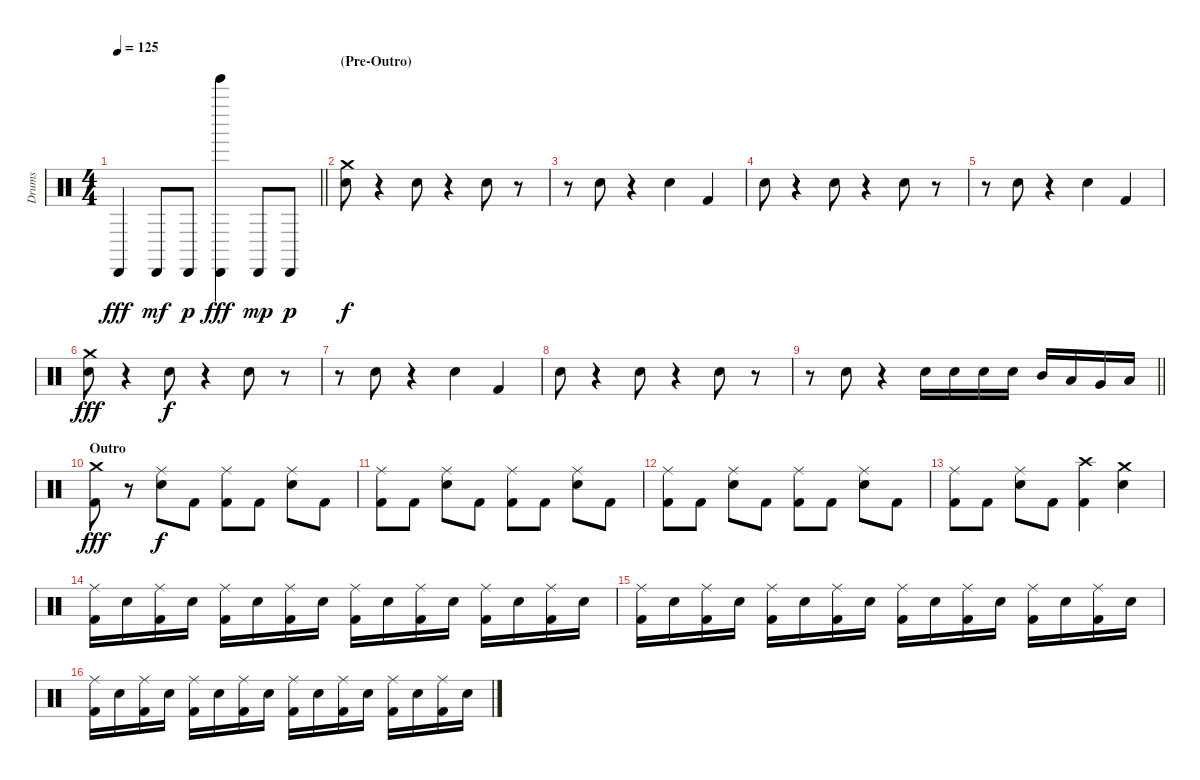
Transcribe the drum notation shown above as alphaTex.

\track ("Drums" "Drums") {instrument percussion}
\staff {score}
\articulation defaults
\ts (4 4)
\tempo 125
\clef neutral
\barLineRight lightlight
\ks c "Cabasa (hit)".4{dy fff} "Cabasa (hit)".8{dy mf} "Cabasa (hit)".8{dy p}
("Tinkle Bell (hit)" "Cabasa (hit)").4{dy fff} "Cabasa (hit)".8{dy mp} "Cabasa (hit)".8{dy p} |
\section ("" "(Pre-Outro)")
("Crash medium (hit)" "Electric Snare (hit)").8{dy f} r.4 "Electric Snare (hit)".8 r.4 "Electric Snare (hit)".8 r.8 |
r.8 "Electric Snare (hit)".8 r.4 "Electric Snare (hit)".4 "Kick (hit) 2".4 |
"Electric Snare (hit)".8 r.4 "Electric Snare (hit)".8 r.4 "Electric Snare (hit)".8 r.8 |
r.8 "Electric Snare (hit)".8 r.4 "Electric Snare (hit)".4 "Kick (hit) 2".4 |
("Crash medium (hit)" "Electric Snare (hit)").8{dy fff} r.4 "Electric Snare (hit)".8{dy f} r.4 "Electric Snare (hit)".8 r.8 |
r.8 "Electric Snare (hit)".8 r.4 "Electric Snare (hit)".4 "Kick (hit) 2".4 |
"Electric Snare (hit)".8 r.4 "Electric Snare (hit)".8 r.4 "Electric Snare (hit)".8 r.8 |
\barLineRight lightlight
r.8 "Electric Snare (hit)".8 r.4 "Electric Snare (hit)".16 "Electric Snare (hit)".16 "Electric Snare (hit)".16 "Electric Snare (hit)".16 "Mid Tom (hit)".16 "Low Tom (hit)".16 "Very Low Tom (hit)".16 "Low Floor Tom (hit)".16 |
\section ("" "Outro")
("Crash medium (hit)" "Kick (hit) 2").8{dy fff} r.8 ("Ride (middle)" "Electric Snare (hit)").8{dy f} "Kick (hit) 2".8 ("Ride (middle)" "Kick (hit) 2").8 "Kick (hit) 2".8 ("Ride (middle)" "Electric Snare (hit)").8 "Kick (hit) 2".8 |
("Ride (middle)" "Kick (hit) 2").8 "Kick (hit) 2".8 ("Ride (middle)" "Electric Snare (hit)").8 "Kick (hit) 2".8 ("Ride (middle)" "Kick (hit) 2").8 "Kick (hit) 2".8 ("Ride (middle)" "Electric Snare (hit)").8 "Kick (hit) 2".8 |
("Ride (middle)" "Kick (hit) 2").8 "Kick (hit) 2".8 ("Ride (middle)" "Electric Snare (hit)").8 "Kick (hit) 2".8 ("Ride (middle)" "Kick (hit) 2").8 "Kick (hit) 2".8 ("Ride (middle)" "Electric Snare (hit)").8 "Kick (hit) 2".8 |
("Ride (middle)" "Kick (hit) 2").8 "Kick (hit) 2".8 ("Ride (middle)" "Electric Snare (hit)").8 "Kick (hit) 2".8 ("Crash high (hit)" "Kick (hit) 2").4 ("Crash medium (hit)" "Electric Snare (hit)").4 |
("Ride (middle)" "Kick (hit) 2").16 "Electric Snare (hit)".16 ("Ride (middle)" "Kick (hit) 2").16 "Electric Snare (hit)".16 ("Ride (middle)" "Kick (hit) 2").16 "Electric Snare (hit)".16 ("Ride (middle)" "Kick (hit) 2").16 "Electric Snare (hit)".16 ("Ride (middle)" "Kick (hit) 2").16 "Electric Snare (hit)".16 ("Ride (middle)" "Kick (hit) 2").16 "Electric Snare (hit)".16 ("Ride (middle)" "Kick (hit) 2").16 "Electric Snare (hit)".16 ("Ride (middle)" "Kick (hit) 2").16 "Electric Snare (hit)".16 |
("Ride (middle)" "Kick (hit) 2").16 "Electric Snare (hit)".16 ("Ride (middle)" "Kick (hit) 2").16 "Electric Snare (hit)".16 ("Ride (middle)" "Kick (hit) 2").16 "Electric Snare (hit)".16 ("Ride (middle)" "Kick (hit) 2").16 "Electric Snare (hit)".16 ("Ride (middle)" "Kick (hit) 2").16 "Electric Snare (hit)".16 ("Ride (middle)" "Kick (hit) 2").16 "Electric Snare (hit)".16 ("Ride (middle)" "Kick (hit) 2").16 "Electric Snare (hit)".16 ("Ride (middle)" "Kick (hit) 2").16 "Electric Snare (hit)".16 |
("Ride (middle)" "Kick (hit) 2").16 "Electric Snare (hit)".16 ("Ride (middle)" "Kick (hit) 2").16 "Electric Snare (hit)".16 ("Ride (middle)" "Kick (hit) 2").16 "Electric Snare (hit)".16 ("Ride (middle)" "Kick (hit) 2").16 "Electric Snare (hit)".16 ("Ride (middle)" "Kick (hit) 2").16 "Electric Snare (hit)".16 ("Ride (middle)" "Kick (hit) 2").16 "Electric Snare (hit)".16 ("Ride (middle)" "Kick (hit) 2").16 "Electric Snare (hit)".16 ("Ride (middle)" "Kick (hit) 2").16 "Electric Snare (hit)".16
